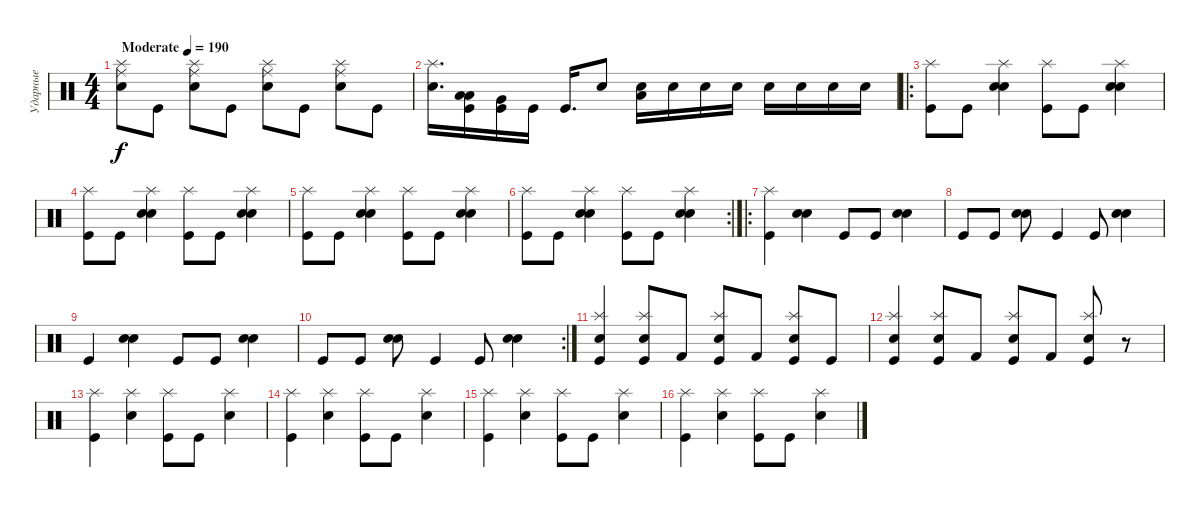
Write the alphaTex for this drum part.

\track ("Ударные" "Ударные") {instrument percussion}
\staff {score}
\articulation defaults
\ts (4 4)
\tempo (190 "Moderate")
\clef neutral
\ks c
("Electric Snare (hit)" "Splash (hit)" "Ride (middle)").8{dy f} "Kick (hit)".8 ("Electric Snare (hit)" "Splash (hit)" "Ride (middle)").8 "Kick (hit)".8 ("Electric Snare (hit)" "Splash (hit)" "Ride (middle)").8 "Kick (hit)".8 ("Electric Snare (hit)" "Splash (hit)" "Ride (middle)").8 "Kick (hit)".8 |
("Electric Snare (hit)" "Splash (hit)").16{d} ("Low Tom (hit)" "Low Floor Tom (hit)" "Kick (hit)").16 ("Very Low Tom (hit)" "Kick (hit)").16 "Kick (hit)".16 "Kick (hit)".16{d} "Electric Snare (hit)".8 ("Low Floor Tom (hit)" "Electric Snare (hit)").16 "Electric Snare (hit)".16 "Electric Snare (hit)".16 "Electric Snare (hit)".16 "Electric Snare (hit)".16 "Electric Snare (hit)".16 "Electric Snare (hit)".16 "Electric Snare (hit)".16 |
\ro
("Splash (hit)" "Kick (hit)").8 "Kick (hit)".8 ("Splash (hit)" "Snare (hit) 2" "Electric Snare (hit)").4 ("Splash (hit)" "Kick (hit)").8 "Kick (hit)".8 ("Splash (hit)" "Snare (hit) 2" "Electric Snare (hit)").4 |
("Splash (hit)" "Kick (hit)").8 "Kick (hit)".8 ("Splash (hit)" "Snare (hit) 2" "Electric Snare (hit)").4 ("Splash (hit)" "Kick (hit)").8 "Kick (hit)".8 ("Splash (hit)" "Snare (hit) 2" "Electric Snare (hit)").4 |
("Splash (hit)" "Kick (hit)").8 "Kick (hit)".8 ("Splash (hit)" "Snare (hit) 2" "Electric Snare (hit)").4 ("Splash (hit)" "Kick (hit)").8 "Kick (hit)".8 ("Splash (hit)" "Snare (hit) 2" "Electric Snare (hit)").4 |
\rc 2
("Splash (hit)" "Kick (hit)").8 "Kick (hit)".8 ("Splash (hit)" "Snare (hit) 2" "Electric Snare (hit)").4 ("Splash (hit)" "Kick (hit)").8 "Kick (hit)".8 ("Splash (hit)" "Snare (hit) 2" "Electric Snare (hit)").4 |
\ro
("Splash (hit)" "Kick (hit)").4 ("Snare (hit) 2" "Electric Snare (hit)").4 "Kick (hit)".8 "Kick (hit)".8 ("Snare (hit) 2" "Electric Snare (hit)").4 |
"Kick (hit)".8 "Kick (hit)".8 ("Snare (hit) 2" "Electric Snare (hit)").8 "Kick (hit)".4 "Kick (hit)".8 ("Snare (hit) 2" "Electric Snare (hit)").4 |
"Kick (hit)".4 ("Snare (hit) 2" "Electric Snare (hit)").4 "Kick (hit)".8 "Kick (hit)".8 ("Snare (hit) 2" "Electric Snare (hit)").4 |
\rc 2 "Kick (hit)".8 "Kick (hit)".8
("Snare (hit) 2" "Electric Snare (hit)").8 "Kick (hit)".4 "Kick (hit)".8 ("Snare (hit) 2" "Electric Snare (hit)").4 |
("Splash (hit)" "Electric Snare (hit)" "Kick (hit)").4 ("Splash (hit)" "Electric Snare (hit)" "Kick (hit)").8 "Kick (hit) 2".8 ("Splash (hit)" "Electric Snare (hit)" "Kick (hit)").8 "Kick (hit) 2".8 ("Splash (hit)" "Electric Snare (hit)" "Kick (hit)").8 "Kick (hit)".8 |
("Splash (hit)" "Electric Snare (hit)" "Kick (hit)").4 ("Splash (hit)" "Electric Snare (hit)" "Kick (hit)").8 "Kick (hit) 2".8 ("Splash (hit)" "Electric Snare (hit)" "Kick (hit)").8 "Kick (hit) 2".8 ("Splash (hit)" "Electric Snare (hit)" "Kick (hit)").8 r.8 |
("Splash (hit)" "Kick (hit)").4 ("Splash (hit)" "Electric Snare (hit)").4 ("Splash (hit)" "Kick (hit)").8 "Kick (hit)".8 ("Splash (hit)" "Electric Snare (hit)").4 |
("Splash (hit)" "Kick (hit)").4 ("Splash (hit)" "Electric Snare (hit)").4 ("Splash (hit)" "Kick (hit)").8 "Kick (hit)".8 ("Splash (hit)" "Electric Snare (hit)").4 |
("Splash (hit)" "Kick (hit)").4 ("Splash (hit)" "Electric Snare (hit)").4 ("Splash (hit)" "Kick (hit)").8 "Kick (hit)".8 ("Splash (hit)" "Electric Snare (hit)").4 |
("Splash (hit)" "Kick (hit)").4 ("Splash (hit)" "Electric Snare (hit)").4 ("Splash (hit)" "Kick (hit)").8 "Kick (hit)".8 ("Splash (hit)" "Electric Snare (hit)").4
